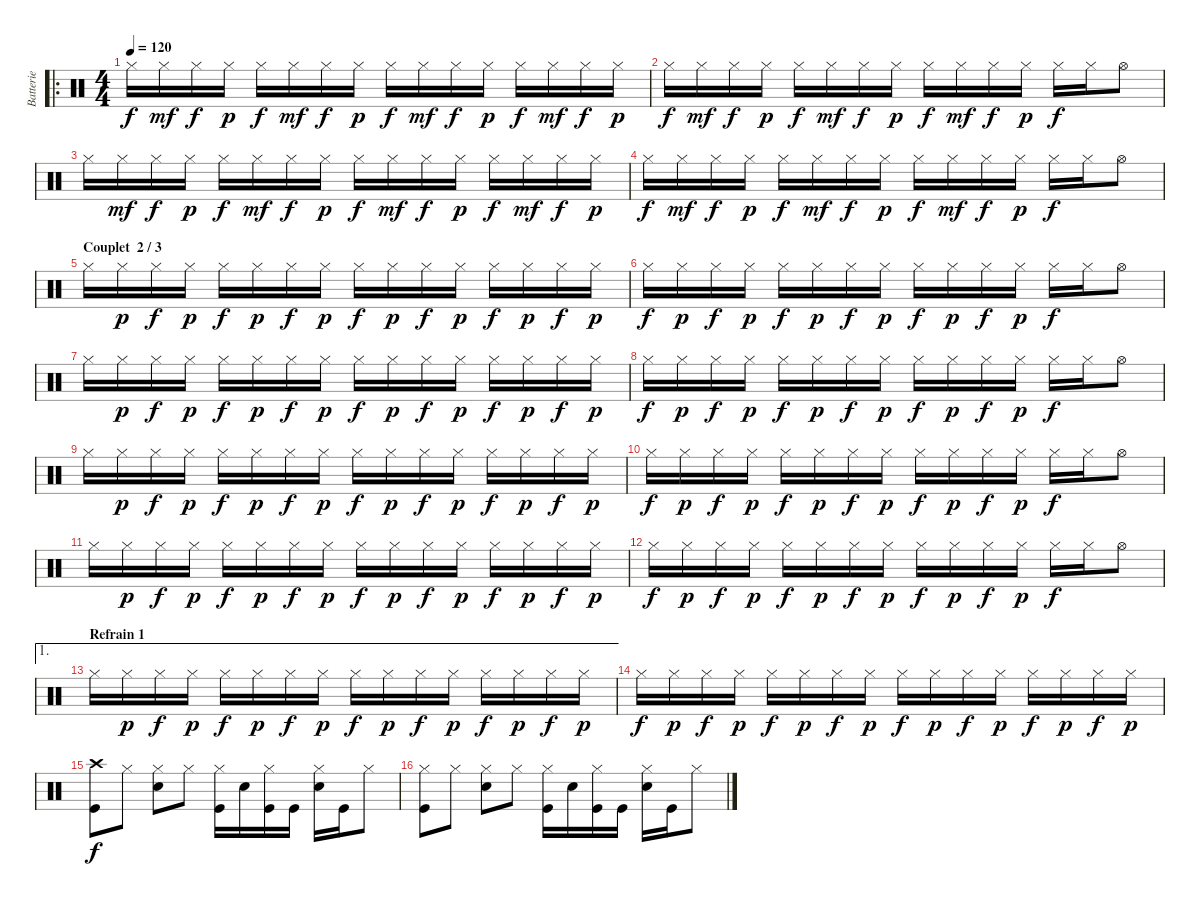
\track ("Batterie" "Batterie") {instrument percussion}
\staff {score}
\articulation defaults
\ro
\ts (4 4)
\tempo 120
\clef neutral
\ks c "Hi-Hat (closed)".16{dy f} "Hi-Hat (closed)".16{dy mf} "Hi-Hat (closed)".16{dy f} "Hi-Hat (closed)".16{dy p} "Hi-Hat (closed)".16{dy f} "Hi-Hat (closed)".16{dy mf} "Hi-Hat (closed)".16{dy f} "Hi-Hat (closed)".16{dy p} "Hi-Hat (closed)".16{dy f} "Hi-Hat (closed)".16{dy mf} "Hi-Hat (closed)".16{dy f} "Hi-Hat (closed)".16{dy p} "Hi-Hat (closed)".16{dy f} "Hi-Hat (closed)".16{dy mf} "Hi-Hat (closed)".16{dy f} "Hi-Hat (closed)".16{dy p}
|
"Hi-Hat (closed)".16{dy f} "Hi-Hat (closed)".16{dy mf} "Hi-Hat (closed)".16{dy f} "Hi-Hat (closed)".16{dy p} "Hi-Hat (closed)".16{dy f} "Hi-Hat (closed)".16{dy mf} "Hi-Hat (closed)".16{dy f} "Hi-Hat (closed)".16{dy p} "Hi-Hat (closed)".16{dy f} "Hi-Hat (closed)".16{dy mf} "Hi-Hat (closed)".16{dy f} "Hi-Hat (closed)".16{dy p} "Hi-Hat (closed)".16{dy f} "Hi-Hat (closed)".16 "Hi-Hat (open)".8 |
"Hi-Hat (closed)".16 "Hi-Hat (closed)".16{dy mf} "Hi-Hat (closed)".16{dy f} "Hi-Hat (closed)".16{dy p} "Hi-Hat (closed)".16{dy f} "Hi-Hat (closed)".16{dy mf} "Hi-Hat (closed)".16{dy f} "Hi-Hat (closed)".16{dy p} "Hi-Hat (closed)".16{dy f} "Hi-Hat (closed)".16{dy mf} "Hi-Hat (closed)".16{dy f} "Hi-Hat (closed)".16{dy p} "Hi-Hat (closed)".16{dy f} "Hi-Hat (closed)".16{dy mf} "Hi-Hat (closed)".16{dy f} "Hi-Hat (closed)".16{dy p} |
"Hi-Hat (closed)".16{dy f} "Hi-Hat (closed)".16{dy mf} "Hi-Hat (closed)".16{dy f} "Hi-Hat (closed)".16{dy p} "Hi-Hat (closed)".16{dy f} "Hi-Hat (closed)".16{dy mf} "Hi-Hat (closed)".16{dy f} "Hi-Hat (closed)".16{dy p} "Hi-Hat (closed)".16{dy f} "Hi-Hat (closed)".16{dy mf} "Hi-Hat (closed)".16{dy f} "Hi-Hat (closed)".16{dy p} "Hi-Hat (closed)".16{dy f} "Hi-Hat (closed)".16 "Hi-Hat (open)".8 |
\section ("" "Couplet  2 / 3")
"Hi-Hat (closed)".16 "Hi-Hat (closed)".16{dy p} "Hi-Hat (closed)".16{dy f} "Hi-Hat (closed)".16{dy p} "Hi-Hat (closed)".16{dy f} "Hi-Hat (closed)".16{dy p} "Hi-Hat (closed)".16{dy f} "Hi-Hat (closed)".16{dy p} "Hi-Hat (closed)".16{dy f} "Hi-Hat (closed)".16{dy p} "Hi-Hat (closed)".16{dy f} "Hi-Hat (closed)".16{dy p} "Hi-Hat (closed)".16{dy f} "Hi-Hat (closed)".16{dy p} "Hi-Hat (closed)".16{dy f} "Hi-Hat (closed)".16{dy p} |
"Hi-Hat (closed)".16{dy f} "Hi-Hat (closed)".16{dy p} "Hi-Hat (closed)".16{dy f} "Hi-Hat (closed)".16{dy p} "Hi-Hat (closed)".16{dy f} "Hi-Hat (closed)".16{dy p} "Hi-Hat (closed)".16{dy f} "Hi-Hat (closed)".16{dy p} "Hi-Hat (closed)".16{dy f} "Hi-Hat (closed)".16{dy p} "Hi-Hat (closed)".16{dy f} "Hi-Hat (closed)".16{dy p} "Hi-Hat (closed)".16{dy f} "Hi-Hat (closed)".16 "Hi-Hat (open)".8 |
"Hi-Hat (closed)".16 "Hi-Hat (closed)".16{dy p} "Hi-Hat (closed)".16{dy f} "Hi-Hat (closed)".16{dy p} "Hi-Hat (closed)".16{dy f} "Hi-Hat (closed)".16{dy p} "Hi-Hat (closed)".16{dy f} "Hi-Hat (closed)".16{dy p} "Hi-Hat (closed)".16{dy f} "Hi-Hat (closed)".16{dy p} "Hi-Hat (closed)".16{dy f} "Hi-Hat (closed)".16{dy p} "Hi-Hat (closed)".16{dy f} "Hi-Hat (closed)".16{dy p} "Hi-Hat (closed)".16{dy f} "Hi-Hat (closed)".16{dy p} |
"Hi-Hat (closed)".16{dy f} "Hi-Hat (closed)".16{dy p} "Hi-Hat (closed)".16{dy f} "Hi-Hat (closed)".16{dy p} "Hi-Hat (closed)".16{dy f} "Hi-Hat (closed)".16{dy p} "Hi-Hat (closed)".16{dy f} "Hi-Hat (closed)".16{dy p} "Hi-Hat (closed)".16{dy f} "Hi-Hat (closed)".16{dy p} "Hi-Hat (closed)".16{dy f} "Hi-Hat (closed)".16{dy p} "Hi-Hat (closed)".16{dy f} "Hi-Hat (closed)".16 "Hi-Hat (open)".8 |
"Hi-Hat (closed)".16 "Hi-Hat (closed)".16{dy p} "Hi-Hat (closed)".16{dy f} "Hi-Hat (closed)".16{dy p} "Hi-Hat (closed)".16{dy f} "Hi-Hat (closed)".16{dy p} "Hi-Hat (closed)".16{dy f} "Hi-Hat (closed)".16{dy p} "Hi-Hat (closed)".16{dy f} "Hi-Hat (closed)".16{dy p} "Hi-Hat (closed)".16{dy f} "Hi-Hat (closed)".16{dy p} "Hi-Hat (closed)".16{dy f} "Hi-Hat (closed)".16{dy p} "Hi-Hat (closed)".16{dy f} "Hi-Hat (closed)".16{dy p} |
"Hi-Hat (closed)".16{dy f} "Hi-Hat (closed)".16{dy p} "Hi-Hat (closed)".16{dy f} "Hi-Hat (closed)".16{dy p} "Hi-Hat (closed)".16{dy f} "Hi-Hat (closed)".16{dy p} "Hi-Hat (closed)".16{dy f} "Hi-Hat (closed)".16{dy p} "Hi-Hat (closed)".16{dy f} "Hi-Hat (closed)".16{dy p} "Hi-Hat (closed)".16{dy f} "Hi-Hat (closed)".16{dy p} "Hi-Hat (closed)".16{dy f} "Hi-Hat (closed)".16 "Hi-Hat (open)".8 |
"Hi-Hat (closed)".16 "Hi-Hat (closed)".16{dy p} "Hi-Hat (closed)".16{dy f} "Hi-Hat (closed)".16{dy p} "Hi-Hat (closed)".16{dy f} "Hi-Hat (closed)".16{dy p} "Hi-Hat (closed)".16{dy f} "Hi-Hat (closed)".16{dy p} "Hi-Hat (closed)".16{dy f} "Hi-Hat (closed)".16{dy p} "Hi-Hat (closed)".16{dy f} "Hi-Hat (closed)".16{dy p} "Hi-Hat (closed)".16{dy f} "Hi-Hat (closed)".16{dy p} "Hi-Hat (closed)".16{dy f} "Hi-Hat (closed)".16{dy p} |
"Hi-Hat (closed)".16{dy f} "Hi-Hat (closed)".16{dy p} "Hi-Hat (closed)".16{dy f} "Hi-Hat (closed)".16{dy p} "Hi-Hat (closed)".16{dy f} "Hi-Hat (closed)".16{dy p} "Hi-Hat (closed)".16{dy f} "Hi-Hat (closed)".16{dy p} "Hi-Hat (closed)".16{dy f} "Hi-Hat (closed)".16{dy p} "Hi-Hat (closed)".16{dy f} "Hi-Hat (closed)".16{dy p} "Hi-Hat (closed)".16{dy f} "Hi-Hat (closed)".16 "Hi-Hat (open)".8 |
\ae 1
\section ("" "Refrain 1")
"Hi-Hat (closed)".16 "Hi-Hat (closed)".16{dy p} "Hi-Hat (closed)".16{dy f} "Hi-Hat (closed)".16{dy p} "Hi-Hat (closed)".16{dy f} "Hi-Hat (closed)".16{dy p} "Hi-Hat (closed)".16{dy f} "Hi-Hat (closed)".16{dy p} "Hi-Hat (closed)".16{dy f} "Hi-Hat (closed)".16{dy p} "Hi-Hat (closed)".16{dy f} "Hi-Hat (closed)".16{dy p} "Hi-Hat (closed)".16{dy f} "Hi-Hat (closed)".16{dy p} "Hi-Hat (closed)".16{dy f} "Hi-Hat (closed)".16{dy p} |
"Hi-Hat (closed)".16{dy f} "Hi-Hat (closed)".16{dy p} "Hi-Hat (closed)".16{dy f} "Hi-Hat (closed)".16{dy p} "Hi-Hat (closed)".16{dy f} "Hi-Hat (closed)".16{dy p} "Hi-Hat (closed)".16{dy f} "Hi-Hat (closed)".16{dy p} "Hi-Hat (closed)".16{dy f} "Hi-Hat (closed)".16{dy p} "Hi-Hat (closed)".16{dy f} "Hi-Hat (closed)".16{dy p} "Hi-Hat (closed)".16{dy f} "Hi-Hat (closed)".16{dy p} "Hi-Hat (closed)".16{dy f} "Hi-Hat (closed)".16{dy p} |
("Crash high (hit)" "Kick (hit)").8{dy f} "Hi-Hat (closed)".8 ("Hi-Hat (closed)" "Snare (hit) 2").8 "Hi-Hat (closed)".8 ("Hi-Hat (closed)" "Kick (hit)").16 "Snare (hit) 2".16 ("Hi-Hat (closed)" "Kick (hit)").16 "Kick (hit)".16 ("Hi-Hat (closed)" "Snare (hit) 2").16 "Kick (hit)".16 "Hi-Hat (closed)".8 |
("Hi-Hat (closed)" "Kick (hit)").8 "Hi-Hat (closed)".8 ("Hi-Hat (closed)" "Snare (hit) 2").8 "Hi-Hat (closed)".8 ("Hi-Hat (closed)" "Kick (hit)").16 "Snare (hit) 2".16 ("Hi-Hat (closed)" "Kick (hit)").16 "Kick (hit)".16 ("Hi-Hat (closed)" "Snare (hit) 2").16 "Kick (hit)".16 "Hi-Hat (closed)".8
